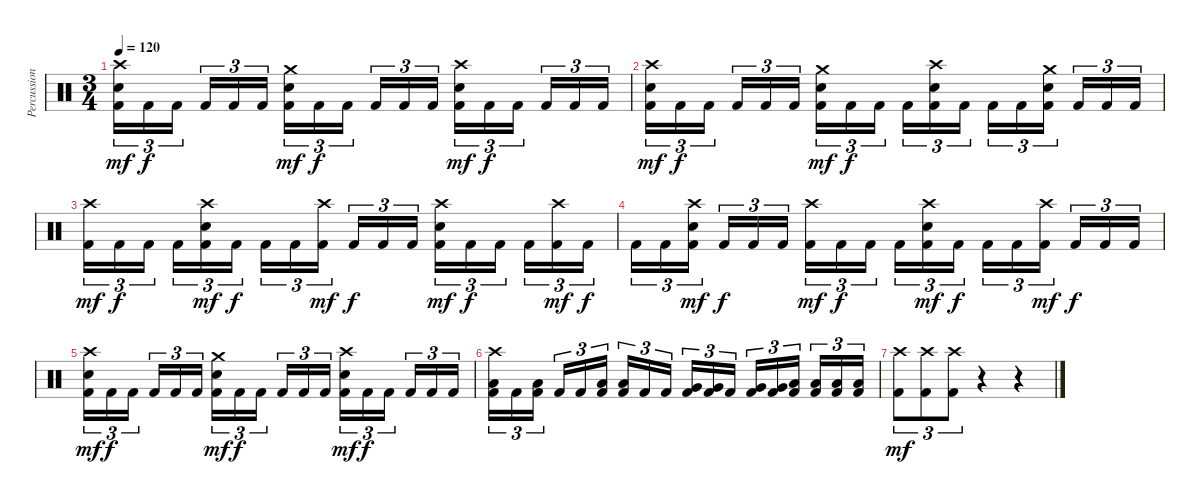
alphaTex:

\track ("Percussion" "Percussion") {instrument percussion}
\staff {score}
\articulation defaults
\ts (3 4)
\tempo 120
\clef neutral
\ks c
("Crash high (hit)" "Electric Snare (hit)" "Kick (hit) 2").16{tu (3 2) dy mf} "Kick (hit) 2".16{tu (3 2) dy f} "Kick (hit) 2".16{tu (3 2)} "Kick (hit) 2".16{tu (3 2)} "Kick (hit) 2".16{tu (3 2)} "Kick (hit) 2".16{tu (3 2)} ("Crash medium (hit)" "Electric Snare (hit)" "Kick (hit) 2").16{tu (3 2) dy mf} "Kick (hit) 2".16{tu (3 2) dy f} "Kick (hit) 2".16{tu (3 2)} "Kick (hit) 2".16{tu (3 2)} "Kick (hit) 2".16{tu (3 2)} "Kick (hit) 2".16{tu (3 2)} ("Crash high (hit)" "Electric Snare (hit)" "Kick (hit) 2").16{tu (3 2) dy mf} "Kick (hit) 2".16{tu (3 2) dy f} "Kick (hit) 2".16{tu (3 2)} "Kick (hit) 2".16{tu (3 2)} "Kick (hit) 2".16{tu (3 2)} "Kick (hit) 2".16{tu (3 2)} |
("Crash high (hit)" "Electric Snare (hit)" "Kick (hit) 2").16{tu (3 2) dy mf} "Kick (hit) 2".16{tu (3 2) dy f} "Kick (hit) 2".16{tu (3 2)} "Kick (hit) 2".16{tu (3 2)} "Kick (hit) 2".16{tu (3 2)} "Kick (hit) 2".16{tu (3 2)} ("Crash medium (hit)" "Electric Snare (hit)" "Kick (hit) 2").16{tu (3 2) dy mf} "Kick (hit) 2".16{tu (3 2) dy f} "Kick (hit) 2".16{tu (3 2)} "Kick (hit) 2".16{tu (3 2)} ("Crash high (hit)" "Electric Snare (hit)" "Kick (hit) 2").16{tu (3 2)} "Kick (hit) 2".16{tu (3 2)} "Kick (hit) 2".16{tu (3 2)} "Kick (hit) 2".16{tu (3 2)} ("Crash medium (hit)" "Electric Snare (hit)" "Kick (hit) 2").16{tu (3 2)} "Kick (hit) 2".16{tu (3 2)} "Kick (hit) 2".16{tu (3 2)} "Kick (hit) 2".16{tu (3 2)} |
("Crash high (hit)" "Kick (hit) 2").16{tu (3 2) dy mf} "Kick (hit) 2".16{tu (3 2) dy f} "Kick (hit) 2".16{tu (3 2)} "Kick (hit) 2".16{tu (3 2)} ("Crash high (hit)" "Electric Snare (hit)" "Kick (hit) 2").16{tu (3 2) dy mf} "Kick (hit) 2".16{tu (3 2) dy f} "Kick (hit) 2".16{tu (3 2)} "Kick (hit) 2".16{tu (3 2)} ("Crash high (hit)" "Kick (hit) 2").16{tu (3 2) dy mf} "Kick (hit) 2".16{tu (3 2) dy f} "Kick (hit) 2".16{tu (3 2)} "Kick (hit) 2".16{tu (3 2)} ("Crash high (hit)" "Electric Snare (hit)" "Kick (hit) 2").16{tu (3 2) dy mf} "Kick (hit) 2".16{tu (3 2) dy f} "Kick (hit) 2".16{tu (3 2)} "Kick (hit) 2".16{tu (3 2)} ("Crash high (hit)" "Kick (hit) 2").16{tu (3 2) dy mf} "Kick (hit) 2".16{tu (3 2) dy f} |
"Kick (hit) 2".16{tu (3 2)} "Kick (hit) 2".16{tu (3 2)} ("Crash high (hit)" "Electric Snare (hit)" "Kick (hit) 2").16{tu (3 2) dy mf} "Kick (hit) 2".16{tu (3 2) dy f} "Kick (hit) 2".16{tu (3 2)} "Kick (hit) 2".16{tu (3 2)} ("Crash high (hit)" "Kick (hit) 2").16{tu (3 2) dy mf} "Kick (hit) 2".16{tu (3 2) dy f} "Kick (hit) 2".16{tu (3 2)} "Kick (hit) 2".16{tu (3 2)} ("Crash high (hit)" "Electric Snare (hit)" "Kick (hit) 2").16{tu (3 2) dy mf} "Kick (hit) 2".16{tu (3 2) dy f} "Kick (hit) 2".16{tu (3 2)} "Kick (hit) 2".16{tu (3 2)} ("Crash high (hit)" "Kick (hit) 2").16{tu (3 2) dy mf} "Kick (hit) 2".16{tu (3 2) dy f} "Kick (hit) 2".16{tu (3 2)} "Kick (hit) 2".16{tu (3 2)} |
("Crash high (hit)" "Electric Snare (hit)" "Kick (hit) 2").16{tu (3 2) dy mf} "Kick (hit) 2".16{tu (3 2) dy f} "Kick (hit) 2".16{tu (3 2)} "Kick (hit) 2".16{tu (3 2)} "Kick (hit) 2".16{tu (3 2)} "Kick (hit) 2".16{tu (3 2)} ("Crash medium (hit)" "Electric Snare (hit)" "Kick (hit) 2").16{tu (3 2) dy mf} "Kick (hit) 2".16{tu (3 2) dy f} "Kick (hit) 2".16{tu (3 2)} "Kick (hit) 2".16{tu (3 2)} "Kick (hit) 2".16{tu (3 2)} "Kick (hit) 2".16{tu (3 2)} ("Crash high (hit)" "Electric Snare (hit)" "Kick (hit) 2").16{tu (3 2) dy mf} "Kick (hit) 2".16{tu (3 2) dy f} "Kick (hit) 2".16{tu (3 2)} "Kick (hit) 2".16{tu (3 2)} "Kick (hit) 2".16{tu (3 2)} "Kick (hit) 2".16{tu (3 2)} |
("Crash high (hit)" "Low Tom (hit)" "Kick (hit) 2").16{tu (3 2)} "Kick (hit) 2".16{tu (3 2)} ("Low Tom (hit)" "Kick (hit) 2").16{tu (3 2)} "Kick (hit) 2".16{tu (3 2)} "Kick (hit) 2".16{tu (3 2)} ("Low Tom (hit)" "Kick (hit) 2").16{tu (3 2)} ("Low Tom (hit)" "Kick (hit) 2").16{tu (3 2)} "Kick (hit) 2".16{tu (3 2)} "Kick (hit) 2".16{tu (3 2)} ("Very Low Tom (hit)" "Kick (hit) 2").16{tu (3 2)} ("Very Low Tom (hit)" "Kick (hit) 2").16{tu (3 2)} "Kick (hit) 2".16{tu (3 2)} ("Very Low Tom (hit)" "Kick (hit) 2").16{tu (3 2)} ("Very Low Tom (hit)" "Kick (hit) 2").16{tu (3 2)} ("Low Floor Tom (hit)" "Kick (hit) 2").16{tu (3 2)} ("Low Floor Tom (hit)" "Kick (hit) 2").16{tu (3 2)} ("Low Floor Tom (hit)" "Kick (hit) 2").16{tu (3 2)} ("Low Floor Tom (hit)" "Kick (hit) 2").16{tu (3 2)} |
("Crash high (hit)" "Kick (hit) 2").8{tu (3 2) dy mf} ("Crash high (hit)" "Kick (hit) 2").8{tu (3 2)} ("Crash high (hit)" "Kick (hit) 2").8{tu (3 2)} r.4{volume 0} r.4
